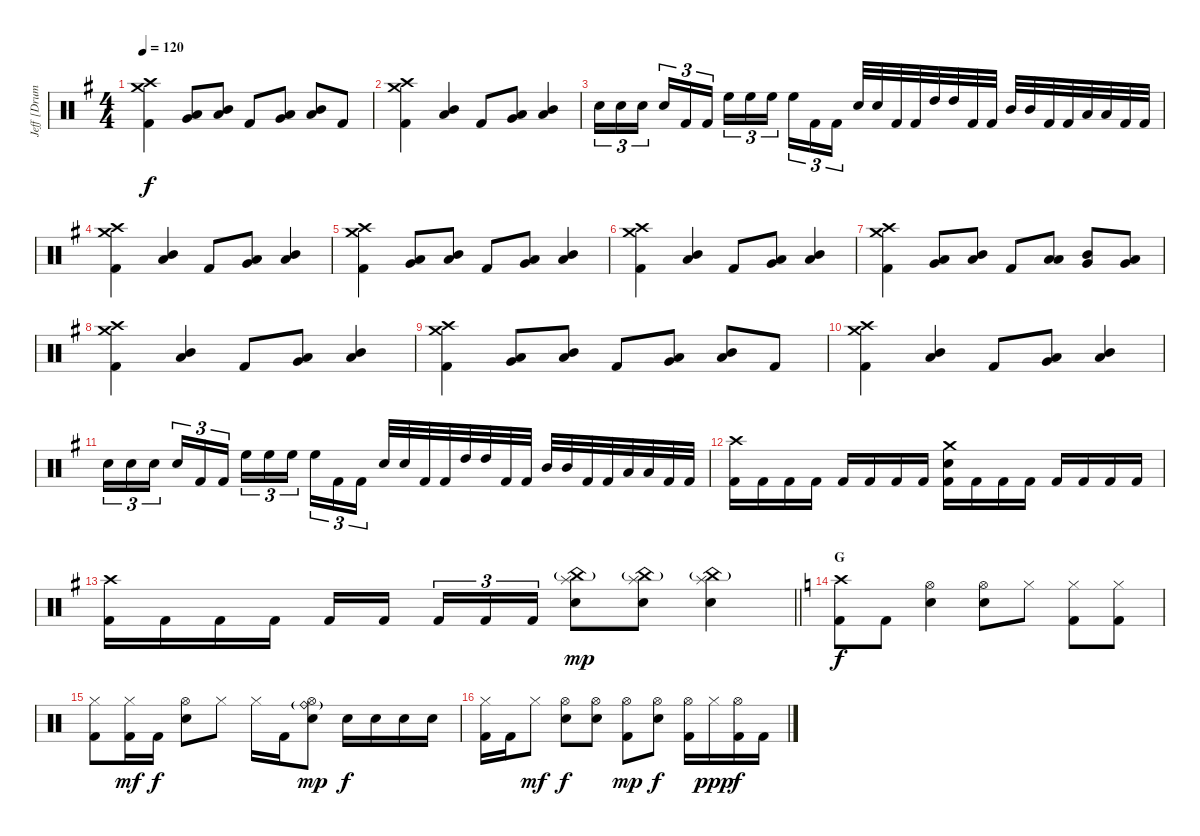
\track ("Jeff [Drums]" "Jeff [Drum") {instrument percussion}
\staff {score}
\articulation defaults
\ts (4 4)
\tempo 120
\clef neutral
\ks g
("Crash high (hit)" "Crash medium (hit)" "Kick (hit) 2").4{dy f} ("Low Tom (hit)" "Very Low Tom (hit)").8 ("Mid Tom (hit)" "Low Tom (hit)").8 "Kick (hit) 2".8 ("Low Tom (hit)" "Very Low Tom (hit)").8 ("Mid Tom (hit)" "Low Tom (hit)").8 "Kick (hit) 2".8 |
("Crash high (hit)" "Crash medium (hit)" "Kick (hit) 2").4 ("Mid Tom (hit)" "Low Tom (hit)").4 "Kick (hit) 2".8 ("Low Tom (hit)" "Very Low Tom (hit)").8 ("Mid Tom (hit)" "Low Tom (hit)").4 |
"Electric Snare (hit)".16{tu (3 2)} "Electric Snare (hit)".16{tu (3 2)} "Electric Snare (hit)".16{tu (3 2) beam splitsecondary} "Electric Snare (hit)".16{tu (3 2)} "Kick (hit) 2".16{tu (3 2)} "Kick (hit) 2".16{tu (3 2)} "High Floor Tom (hit)".16{tu (3 2)} "High Floor Tom (hit)".16{tu (3 2)} "High Floor Tom (hit)".16{tu (3 2) beam splitsecondary} "High Floor Tom (hit)".16{tu (3 2)} "Kick (hit) 2".16{tu (3 2)} "Kick (hit) 2".16{tu (3 2)} "Electric Snare (hit)".32 "Electric Snare (hit)".32 "Kick (hit) 2".32 "Kick (hit) 2".32 "High Tom (hit)".32 "High Tom (hit)".32 "Kick (hit) 2".32 "Kick (hit) 2".32 "Mid Tom (hit)".32 "Mid Tom (hit)".32 "Kick (hit) 2".32 "Kick (hit) 2".32 "Low Tom (hit)".32 "Low Tom (hit)".32 "Kick (hit) 2".32 "Kick (hit) 2".32 |
("Crash high (hit)" "Crash medium (hit)" "Kick (hit) 2").4 ("Mid Tom (hit)" "Low Tom (hit)").4 "Kick (hit) 2".8 ("Low Tom (hit)" "Very Low Tom (hit)").8 ("Mid Tom (hit)" "Low Tom (hit)").4 |
("Crash high (hit)" "Crash medium (hit)" "Kick (hit) 2").4 ("Low Tom (hit)" "Very Low Tom (hit)").8 ("Mid Tom (hit)" "Low Tom (hit)").8 "Kick (hit) 2".8 ("Low Tom (hit)" "Very Low Tom (hit)").8 ("Mid Tom (hit)" "Low Tom (hit)").4 |
("Crash high (hit)" "Crash medium (hit)" "Kick (hit) 2").4 ("Mid Tom (hit)" "Low Tom (hit)").4 "Kick (hit) 2".8 ("Low Tom (hit)" "Very Low Tom (hit)").8 ("Mid Tom (hit)" "Low Tom (hit)").4 |
("Crash high (hit)" "Crash medium (hit)" "Kick (hit) 2").4 ("Low Tom (hit)" "Very Low Tom (hit)").8 ("Mid Tom (hit)" "Low Tom (hit)").8 "Kick (hit) 2".8 ("Low Tom (hit)" "Low Floor Tom (hit)").8 ("Mid Tom (hit)" "Very Low Tom (hit)").8 ("Low Tom (hit)" "Very Low Tom (hit)").8 |
("Crash high (hit)" "Crash medium (hit)" "Kick (hit) 2").4 ("Mid Tom (hit)" "Low Tom (hit)").4 "Kick (hit) 2".8 ("Low Tom (hit)" "Very Low Tom (hit)").8 ("Mid Tom (hit)" "Low Tom (hit)").4 |
("Crash high (hit)" "Crash medium (hit)" "Kick (hit) 2").4 ("Low Tom (hit)" "Very Low Tom (hit)").8 ("Mid Tom (hit)" "Low Tom (hit)").8 "Kick (hit) 2".8 ("Low Tom (hit)" "Very Low Tom (hit)").8 ("Mid Tom (hit)" "Low Tom (hit)").8 "Kick (hit) 2".8 |
("Crash high (hit)" "Crash medium (hit)" "Kick (hit) 2").4 ("Mid Tom (hit)" "Low Tom (hit)").4 "Kick (hit) 2".8 ("Low Tom (hit)" "Very Low Tom (hit)").8 ("Mid Tom (hit)" "Low Tom (hit)").4 |
"Electric Snare (hit)".16{tu (3 2)} "Electric Snare (hit)".16{tu (3 2)} "Electric Snare (hit)".16{tu (3 2) beam splitsecondary} "Electric Snare (hit)".16{tu (3 2)} "Kick (hit) 2".16{tu (3 2)} "Kick (hit) 2".16{tu (3 2)} "High Floor Tom (hit)".16{tu (3 2)} "High Floor Tom (hit)".16{tu (3 2)} "High Floor Tom (hit)".16{tu (3 2) beam splitsecondary} "High Floor Tom (hit)".16{tu (3 2)} "Kick (hit) 2".16{tu (3 2)} "Kick (hit) 2".16{tu (3 2)} "Electric Snare (hit)".32 "Electric Snare (hit)".32 "Kick (hit) 2".32 "Kick (hit) 2".32 "High Tom (hit)".32 "High Tom (hit)".32 "Kick (hit) 2".32 "Kick (hit) 2".32 "Mid Tom (hit)".32 "Mid Tom (hit)".32 "Kick (hit) 2".32 "Kick (hit) 2".32 "Low Tom (hit)".32 "Low Tom (hit)".32 "Kick (hit) 2".32 "Kick (hit) 2".32 |
("Crash high (hit)" "Kick (hit) 2").16 "Kick (hit) 2".16 "Kick (hit) 2".16 "Kick (hit) 2".16 "Kick (hit) 2".16 "Kick (hit) 2".16 "Kick (hit) 2".16 "Kick (hit) 2".16 ("Crash medium (hit)" "Electric Snare (hit)" "Kick (hit) 2").16 "Kick (hit) 2".16 "Kick (hit) 2".16 "Kick (hit) 2".16 "Kick (hit) 2".16 "Kick (hit) 2".16 "Kick (hit) 2".16 "Kick (hit) 2".16 |
\barLineRight lightlight
("Crash high (hit)" "Kick (hit) 2").16 "Kick (hit) 2".16 "Kick (hit) 2".16 "Kick (hit) 2".16 "Kick (hit) 2".16 "Kick (hit) 2".16{beam splitsecondary} "Kick (hit) 2".16{tu (3 2)} "Kick (hit) 2".16{tu (3 2)} "Kick (hit) 2".16{tu (3 2)} ("China (hit)"{g} "Splash (hit)" "Electric Snare (hit)").8{dy mp} ("China (hit)"{g} "Splash (hit)" "Electric Snare (hit)").8 ("China (hit)"{g} "Splash (hit)" "Electric Snare (hit)").4 |
\section ("" "G")
\ks c
("Crash high (hit)" "Kick (hit) 2").8{dy f} "Kick (hit) 2".8 ("Hi-Hat (open)" "Electric Snare (hit)").4 ("Hi-Hat (open)" "Electric Snare (hit)").8 "Hi-Hat (closed)".8 ("Hi-Hat (closed)" "Kick (hit) 2").8 ("Hi-Hat (closed)" "Kick (hit) 2").8 |
("Hi-Hat (closed)" "Kick (hit) 2").8 ("Hi-Hat (closed)" "Kick (hit) 2").16{dy mf} "Kick (hit) 2".16{dy f} ("Hi-Hat (open)" "Electric Snare (hit)").8 "Hi-Hat (closed)".8 "Hi-Hat (closed)".16 "Kick (hit) 2".16 ("Ride (bell)"{g} "Hi-Hat (open)" "Electric Snare (hit)").8{dy mp} "Electric Snare (hit)".16{dy f} "Electric Snare (hit)".16 "Electric Snare (hit)".16 "Electric Snare (hit)".16 |
("Hi-Hat (closed)" "Kick (hit) 2").16 "Kick (hit) 2".16 "Hi-Hat (closed)".8{dy mf} ("Hi-Hat (open)" "Electric Snare (hit)").8{dy f} ("Hi-Hat (open)" "Electric Snare (hit)").8 ("Hi-Hat (open)" "Kick (hit) 2").8{dy mp} ("Hi-Hat (open)" "Electric Snare (hit)").8{dy f} ("Hi-Hat (open)" "Kick (hit) 2").16 "Hi-Hat (closed)".16{dy ppp} ("Hi-Hat (open)" "Kick (hit) 2").16{dy f} "Kick (hit) 2".16
